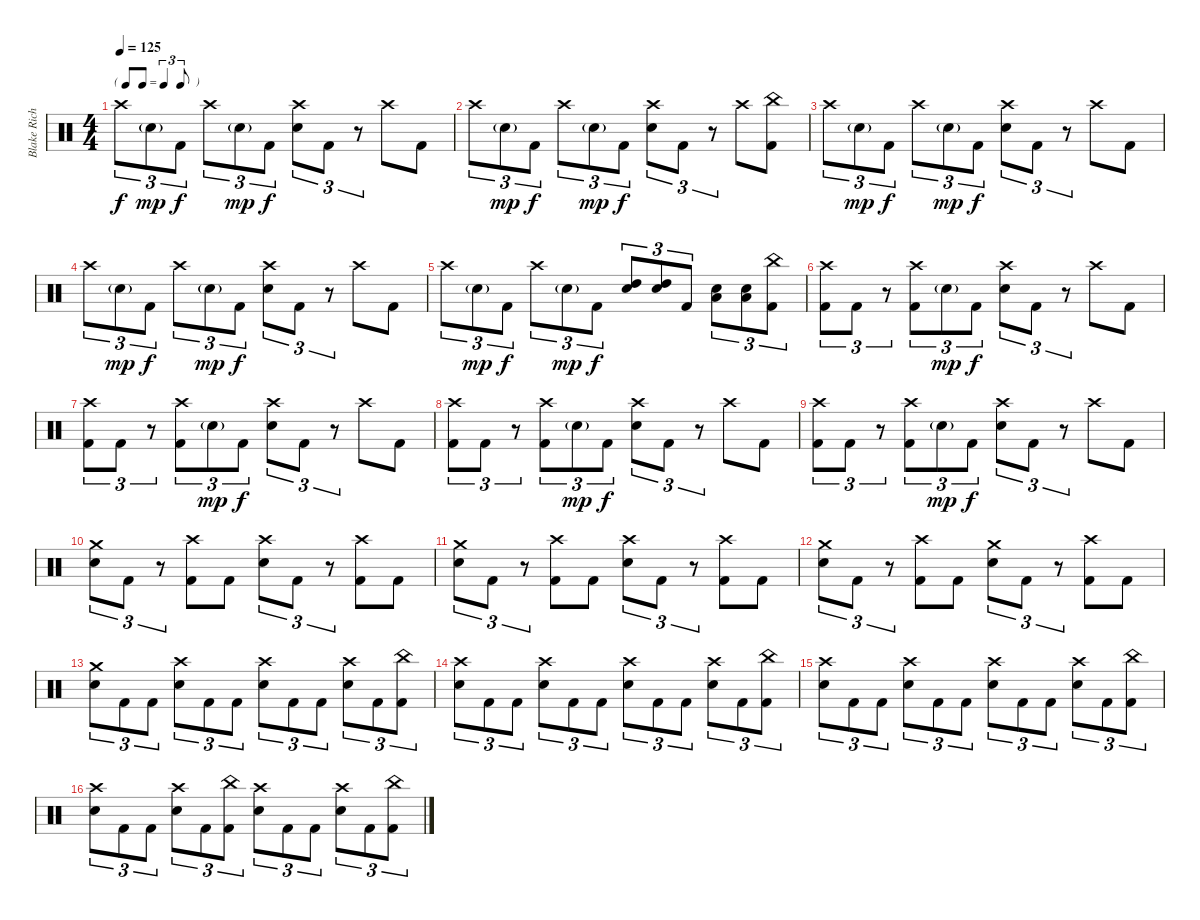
\track ("Blake Richardson - Drums" "Blake Rich") {instrument percussion}
\staff {score}
\articulation defaults
\ts (4 4)
\tf triplet8th
\tempo 125
\clef neutral
\ks c "Crash high (hit)".8{tu (3 2) dy f} "Electric Snare (hit)"{g}.8{tu (3 2) dy mp} "Kick (hit) 2".8{tu (3 2) dy f} "Crash high (hit)".8{tu (3 2)} "Electric Snare (hit)"{g}.8{tu (3 2) dy mp} "Kick (hit) 2".8{tu (3 2) dy f}
("Crash high (hit)" "Electric Snare (hit)").8{tu (3 2)} "Kick (hit) 2".8{tu (3 2)} r.8{tu (3 2)} "Crash high (hit)".8 "Kick (hit) 2".8 |
"Crash high (hit)".8{tu (3 2)} "Electric Snare (hit)"{g}.8{tu (3 2) dy mp} "Kick (hit) 2".8{tu (3 2) dy f} "Crash high (hit)".8{tu (3 2)} "Electric Snare (hit)"{g}.8{tu (3 2) dy mp} "Kick (hit) 2".8{tu (3 2) dy f} ("Crash high (hit)" "Electric Snare (hit)").8{tu (3 2)} "Kick (hit) 2".8{tu (3 2)} r.8{tu (3 2)} "Crash high (hit)".8 ("China (hit)" "Kick (hit) 2").8 |
"Crash high (hit)".8{tu (3 2)} "Electric Snare (hit)"{g}.8{tu (3 2) dy mp} "Kick (hit) 2".8{tu (3 2) dy f} "Crash high (hit)".8{tu (3 2)} "Electric Snare (hit)"{g}.8{tu (3 2) dy mp} "Kick (hit) 2".8{tu (3 2) dy f} ("Crash high (hit)" "Electric Snare (hit)").8{tu (3 2)} "Kick (hit) 2".8{tu (3 2)} r.8{tu (3 2)} "Crash high (hit)".8 "Kick (hit) 2".8 |
"Crash high (hit)".8{tu (3 2)} "Electric Snare (hit)"{g}.8{tu (3 2) dy mp} "Kick (hit) 2".8{tu (3 2) dy f} "Crash high (hit)".8{tu (3 2)} "Electric Snare (hit)"{g}.8{tu (3 2) dy mp} "Kick (hit) 2".8{tu (3 2) dy f} ("Crash high (hit)" "Electric Snare (hit)").8{tu (3 2)} "Kick (hit) 2".8{tu (3 2)} r.8{tu (3 2)} "Crash high (hit)".8 "Kick (hit) 2".8 |
"Crash high (hit)".8{tu (3 2)} "Electric Snare (hit)"{g}.8{tu (3 2) dy mp} "Kick (hit) 2".8{tu (3 2) dy f} "Crash high (hit)".8{tu (3 2)} "Electric Snare (hit)"{g}.8{tu (3 2) dy mp} "Kick (hit) 2".8{tu (3 2) dy f} ("Electric Snare (hit)" "High Tom (hit)").8{tu (3 2)} ("Electric Snare (hit)" "High Tom (hit)").8{tu (3 2)} "Kick (hit) 2".8{tu (3 2)} ("Electric Snare (hit)" "Low Tom (hit)").8{tu (3 2)} ("Electric Snare (hit)" "Low Tom (hit)").8{tu (3 2)} ("China (hit)" "Kick (hit) 2").8{tu (3 2)} |
("Crash high (hit)" "Kick (hit) 2").8{tu (3 2)} "Kick (hit) 2".8{tu (3 2)} r.8{tu (3 2)} ("Crash high (hit)" "Kick (hit) 2").8{tu (3 2)} "Electric Snare (hit)"{g}.8{tu (3 2) dy mp} "Kick (hit) 2".8{tu (3 2) dy f} ("Crash high (hit)" "Electric Snare (hit)").8{tu (3 2)} "Kick (hit) 2".8{tu (3 2)} r.8{tu (3 2)} "Crash high (hit)".8 "Kick (hit) 2".8 |
("Crash high (hit)" "Kick (hit) 2").8{tu (3 2)} "Kick (hit) 2".8{tu (3 2)} r.8{tu (3 2)} ("Crash high (hit)" "Kick (hit) 2").8{tu (3 2)} "Electric Snare (hit)"{g}.8{tu (3 2) dy mp} "Kick (hit) 2".8{tu (3 2) dy f} ("Crash high (hit)" "Electric Snare (hit)").8{tu (3 2)} "Kick (hit) 2".8{tu (3 2)} r.8{tu (3 2)} "Crash high (hit)".8 "Kick (hit) 2".8 |
("Crash high (hit)" "Kick (hit) 2").8{tu (3 2)} "Kick (hit) 2".8{tu (3 2)} r.8{tu (3 2)} ("Crash high (hit)" "Kick (hit) 2").8{tu (3 2)} "Electric Snare (hit)"{g}.8{tu (3 2) dy mp} "Kick (hit) 2".8{tu (3 2) dy f} ("Crash high (hit)" "Electric Snare (hit)").8{tu (3 2)} "Kick (hit) 2".8{tu (3 2)} r.8{tu (3 2)} "Crash high (hit)".8 "Kick (hit) 2".8 |
("Crash high (hit)" "Kick (hit) 2").8{tu (3 2)} "Kick (hit) 2".8{tu (3 2)} r.8{tu (3 2)} ("Crash high (hit)" "Kick (hit) 2").8{tu (3 2)} "Electric Snare (hit)"{g}.8{tu (3 2) dy mp} "Kick (hit) 2".8{tu (3 2) dy f} ("Crash high (hit)" "Electric Snare (hit)").8{tu (3 2)} "Kick (hit) 2".8{tu (3 2)} r.8{tu (3 2)} "Crash high (hit)".8 "Kick (hit) 2".8 |
("Crash medium (hit)" "Electric Snare (hit)").8{tu (3 2)} "Kick (hit) 2".8{tu (3 2)} r.8{tu (3 2)} ("Crash high (hit)" "Kick (hit) 2").8 "Kick (hit) 2".8 ("Crash high (hit)" "Electric Snare (hit)").8{tu (3 2)} "Kick (hit) 2".8{tu (3 2)} r.8{tu (3 2)} ("Crash high (hit)" "Kick (hit) 2").8 "Kick (hit) 2".8 |
("Crash medium (hit)" "Electric Snare (hit)").8{tu (3 2)} "Kick (hit) 2".8{tu (3 2)} r.8{tu (3 2)} ("Crash high (hit)" "Kick (hit) 2").8 "Kick (hit) 2".8 ("Crash high (hit)" "Electric Snare (hit)").8{tu (3 2)} "Kick (hit) 2".8{tu (3 2)} r.8{tu (3 2)} ("Crash high (hit)" "Kick (hit) 2").8 "Kick (hit) 2".8 |
("Crash medium (hit)" "Electric Snare (hit)").8{tu (3 2)} "Kick (hit) 2".8{tu (3 2)} r.8{tu (3 2)} ("Crash high (hit)" "Kick (hit) 2").8 "Kick (hit) 2".8 ("Crash medium (hit)" "Electric Snare (hit)").8{tu (3 2)} "Kick (hit) 2".8{tu (3 2)} r.8{tu (3 2)} ("Crash high (hit)" "Kick (hit) 2").8 "Kick (hit) 2".8 |
("Crash medium (hit)" "Electric Snare (hit)").8{tu (3 2)} "Kick (hit) 2".8{tu (3 2)} "Kick (hit) 2".8{tu (3 2)} ("Crash high (hit)" "Electric Snare (hit)").8{tu (3 2)} "Kick (hit) 2".8{tu (3 2)} "Kick (hit) 2".8{tu (3 2)} ("Crash high (hit)" "Electric Snare (hit)").8{tu (3 2)} "Kick (hit) 2".8{tu (3 2)} "Kick (hit) 2".8{tu (3 2)} ("Crash high (hit)" "Electric Snare (hit)").8{tu (3 2)} "Kick (hit) 2".8{tu (3 2)} ("China (hit)" "Kick (hit) 2").8{tu (3 2)} |
("Crash high (hit)" "Electric Snare (hit)").8{tu (3 2)} "Kick (hit) 2".8{tu (3 2)} "Kick (hit) 2".8{tu (3 2)} ("Crash high (hit)" "Electric Snare (hit)").8{tu (3 2)} "Kick (hit) 2".8{tu (3 2)} "Kick (hit) 2".8{tu (3 2)} ("Crash high (hit)" "Electric Snare (hit)").8{tu (3 2)} "Kick (hit) 2".8{tu (3 2)} "Kick (hit) 2".8{tu (3 2)} ("Crash high (hit)" "Electric Snare (hit)").8{tu (3 2)} "Kick (hit) 2".8{tu (3 2)} ("China (hit)" "Kick (hit) 2").8{tu (3 2)} |
("Crash high (hit)" "Electric Snare (hit)").8{tu (3 2)} "Kick (hit) 2".8{tu (3 2)} "Kick (hit) 2".8{tu (3 2)} ("Crash high (hit)" "Electric Snare (hit)").8{tu (3 2)} "Kick (hit) 2".8{tu (3 2)} "Kick (hit) 2".8{tu (3 2)} ("Crash high (hit)" "Electric Snare (hit)").8{tu (3 2)} "Kick (hit) 2".8{tu (3 2)} "Kick (hit) 2".8{tu (3 2)} ("Crash high (hit)" "Electric Snare (hit)").8{tu (3 2)} "Kick (hit) 2".8{tu (3 2)} ("China (hit)" "Kick (hit) 2").8{tu (3 2)} |
("Crash high (hit)" "Electric Snare (hit)").8{tu (3 2)} "Kick (hit) 2".8{tu (3 2)} "Kick (hit) 2".8{tu (3 2)} ("Crash high (hit)" "Electric Snare (hit)").8{tu (3 2)} "Kick (hit) 2".8{tu (3 2)} ("China (hit)" "Kick (hit) 2").8{tu (3 2)} ("Crash high (hit)" "Electric Snare (hit)").8{tu (3 2)} "Kick (hit) 2".8{tu (3 2)} "Kick (hit) 2".8{tu (3 2)} ("Crash high (hit)" "Electric Snare (hit)").8{tu (3 2)} "Kick (hit) 2".8{tu (3 2)} ("China (hit)" "Kick (hit) 2").8{tu (3 2)}
